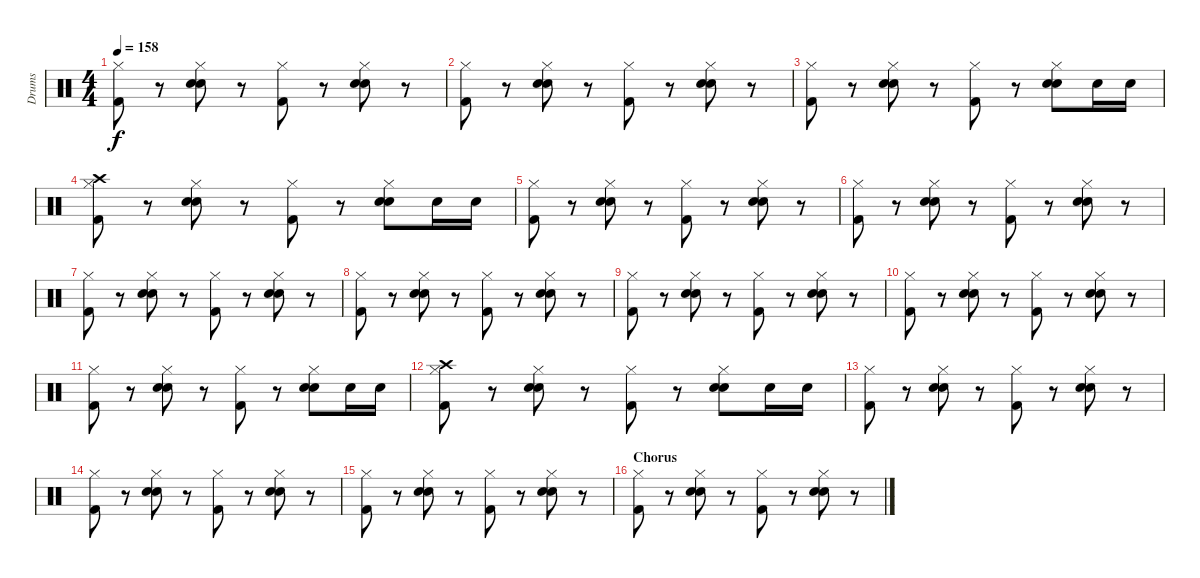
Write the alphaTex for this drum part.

\track ("Drums" "Drums") {instrument percussion}
\staff {score}
\articulation defaults
\ts (4 4)
\tempo 158
\clef neutral
\ks c
("Hi-Hat (closed)" "Kick (hit) 2").8{dy f} r.8 ("Hi-Hat (closed)" "Electric Snare (hit)" "Snare (hit) 2").8 r.8 ("Hi-Hat (closed)" "Kick (hit) 2").8 r.8 ("Hi-Hat (closed)" "Electric Snare (hit)" "Snare (hit) 2").8 r.8 |
("Hi-Hat (closed)" "Kick (hit) 2").8 r.8 ("Hi-Hat (closed)" "Electric Snare (hit)" "Snare (hit) 2").8 r.8 ("Hi-Hat (closed)" "Kick (hit) 2").8 r.8 ("Hi-Hat (closed)" "Electric Snare (hit)" "Snare (hit) 2").8 r.8 |
("Hi-Hat (closed)" "Kick (hit) 2").8 r.8 ("Hi-Hat (closed)" "Electric Snare (hit)" "Snare (hit) 2").8 r.8 ("Hi-Hat (closed)" "Kick (hit) 2").8 r.8 ("Hi-Hat (closed)" "Electric Snare (hit)" "Snare (hit) 2").8 "Snare (hit) 2".16 "Snare (hit) 2".16 |
("Hi-Hat (closed)" "Crash high (hit)" "Kick (hit) 2").8 r.8 ("Hi-Hat (closed)" "Electric Snare (hit)" "Snare (hit) 2").8 r.8 ("Hi-Hat (closed)" "Kick (hit) 2").8 r.8 ("Hi-Hat (closed)" "Electric Snare (hit)" "Snare (hit) 2").8 "Snare (hit) 2".16 "Snare (hit) 2".16 |
("Hi-Hat (closed)" "Kick (hit) 2").8 r.8 ("Hi-Hat (closed)" "Electric Snare (hit)" "Snare (hit) 2").8 r.8 ("Hi-Hat (closed)" "Kick (hit) 2").8 r.8 ("Hi-Hat (closed)" "Electric Snare (hit)" "Snare (hit) 2").8 r.8 |
("Hi-Hat (closed)" "Kick (hit) 2").8 r.8 ("Hi-Hat (closed)" "Electric Snare (hit)" "Snare (hit) 2").8 r.8 ("Hi-Hat (closed)" "Kick (hit) 2").8 r.8 ("Hi-Hat (closed)" "Electric Snare (hit)" "Snare (hit) 2").8 r.8 |
("Hi-Hat (closed)" "Kick (hit) 2").8 r.8 ("Hi-Hat (closed)" "Electric Snare (hit)" "Snare (hit) 2").8 r.8 ("Hi-Hat (closed)" "Kick (hit) 2").8 r.8 ("Hi-Hat (closed)" "Electric Snare (hit)" "Snare (hit) 2").8 r.8 |
("Hi-Hat (closed)" "Kick (hit) 2").8 r.8 ("Hi-Hat (closed)" "Electric Snare (hit)" "Snare (hit) 2").8 r.8 ("Hi-Hat (closed)" "Kick (hit) 2").8 r.8 ("Hi-Hat (closed)" "Electric Snare (hit)" "Snare (hit) 2").8 r.8 |
("Hi-Hat (closed)" "Kick (hit) 2").8 r.8 ("Hi-Hat (closed)" "Electric Snare (hit)" "Snare (hit) 2").8 r.8 ("Hi-Hat (closed)" "Kick (hit) 2").8 r.8 ("Hi-Hat (closed)" "Electric Snare (hit)" "Snare (hit) 2").8 r.8 |
("Hi-Hat (closed)" "Kick (hit) 2").8 r.8 ("Hi-Hat (closed)" "Electric Snare (hit)" "Snare (hit) 2").8 r.8 ("Hi-Hat (closed)" "Kick (hit) 2").8 r.8 ("Hi-Hat (closed)" "Electric Snare (hit)" "Snare (hit) 2").8 r.8 |
("Hi-Hat (closed)" "Kick (hit) 2").8 r.8 ("Hi-Hat (closed)" "Electric Snare (hit)" "Snare (hit) 2").8 r.8 ("Hi-Hat (closed)" "Kick (hit) 2").8 r.8 ("Hi-Hat (closed)" "Electric Snare (hit)" "Snare (hit) 2").8 "Snare (hit) 2".16 "Snare (hit) 2".16 |
("Hi-Hat (closed)" "Crash high (hit)" "Kick (hit) 2").8 r.8 ("Hi-Hat (closed)" "Electric Snare (hit)" "Snare (hit) 2").8 r.8 ("Hi-Hat (closed)" "Kick (hit) 2").8 r.8 ("Hi-Hat (closed)" "Electric Snare (hit)" "Snare (hit) 2").8 "Snare (hit) 2".16 "Snare (hit) 2".16 |
("Hi-Hat (closed)" "Kick (hit) 2").8 r.8 ("Hi-Hat (closed)" "Electric Snare (hit)" "Snare (hit) 2").8 r.8 ("Hi-Hat (closed)" "Kick (hit) 2").8 r.8 ("Hi-Hat (closed)" "Electric Snare (hit)" "Snare (hit) 2").8 r.8 |
("Hi-Hat (closed)" "Kick (hit) 2").8 r.8 ("Hi-Hat (closed)" "Electric Snare (hit)" "Snare (hit) 2").8 r.8 ("Hi-Hat (closed)" "Kick (hit) 2").8 r.8 ("Hi-Hat (closed)" "Electric Snare (hit)" "Snare (hit) 2").8 r.8 |
("Hi-Hat (closed)" "Kick (hit) 2").8 r.8 ("Hi-Hat (closed)" "Electric Snare (hit)" "Snare (hit) 2").8 r.8 ("Hi-Hat (closed)" "Kick (hit) 2").8 r.8 ("Hi-Hat (closed)" "Electric Snare (hit)" "Snare (hit) 2").8 r.8 |
\section ("" "Chorus")
("Hi-Hat (closed)" "Kick (hit) 2").8 r.8 ("Hi-Hat (closed)" "Electric Snare (hit)" "Snare (hit) 2").8 r.8 ("Hi-Hat (closed)" "Kick (hit) 2").8 r.8 ("Hi-Hat (closed)" "Electric Snare (hit)" "Snare (hit) 2").8 r.8
